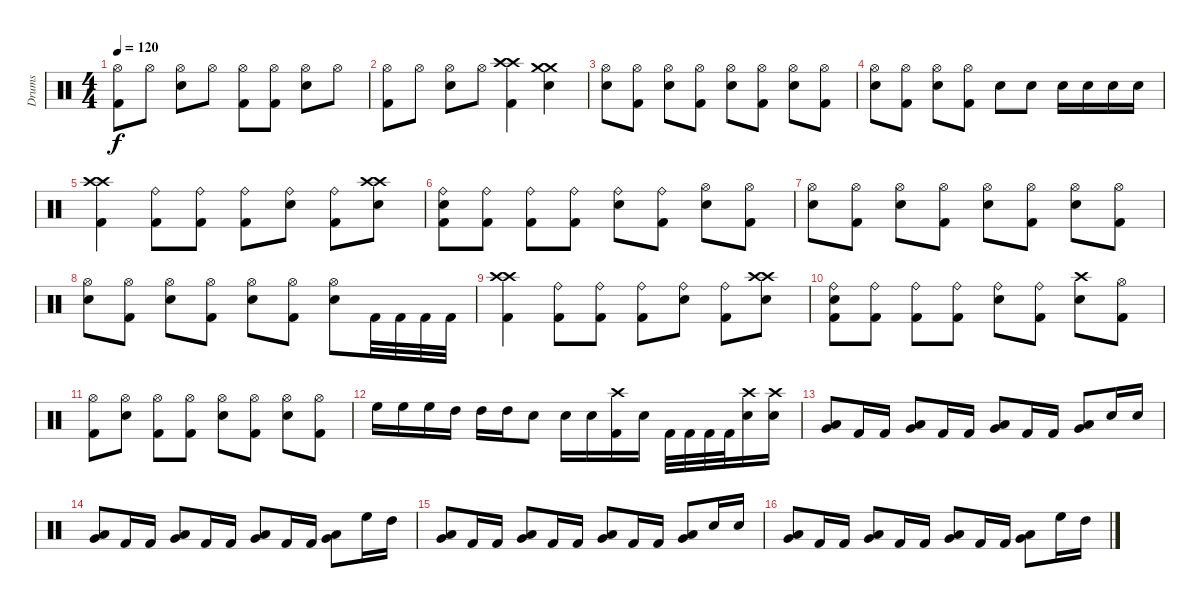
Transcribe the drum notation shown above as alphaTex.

\track ("Drums" "Drums") {instrument percussion}
\staff {score}
\articulation defaults
\ts (4 4)
\tempo 120
\clef neutral
\ks c
("Hi-Hat (open)" "Kick (hit) 2").8{dy f} "Hi-Hat (open)".8 ("Hi-Hat (open)" "Electric Snare (hit)").8 "Hi-Hat (open)".8 ("Hi-Hat (open)" "Kick (hit) 2").8 ("Hi-Hat (open)" "Kick (hit) 2").8 ("Hi-Hat (open)" "Electric Snare (hit)").8 "Hi-Hat (open)".8 |
("Hi-Hat (open)" "Kick (hit) 2").8 "Hi-Hat (open)".8 ("Hi-Hat (open)" "Electric Snare (hit)").8 "Hi-Hat (open)".8 ("Crash high (hit)" "Crash high (hit)" "Kick (hit) 2").4 ("Crash medium (hit)" "Crash medium (hit)" "Electric Snare (hit)").4 |
("Hi-Hat (open)" "Electric Snare (hit)").8 ("Hi-Hat (open)" "Kick (hit) 2").8 ("Hi-Hat (open)" "Electric Snare (hit)").8 ("Hi-Hat (open)" "Kick (hit) 2").8 ("Hi-Hat (open)" "Electric Snare (hit)").8 ("Hi-Hat (open)" "Kick (hit) 2").8 ("Hi-Hat (open)" "Electric Snare (hit)").8 ("Hi-Hat (open)" "Kick (hit) 2").8 |
("Hi-Hat (open)" "Electric Snare (hit)").8 ("Hi-Hat (open)" "Kick (hit) 2").8 ("Hi-Hat (open)" "Electric Snare (hit)").8 ("Hi-Hat (open)" "Kick (hit) 2").8 "Electric Snare (hit)".8 "Electric Snare (hit)".8 "Electric Snare (hit)".16 "Electric Snare (hit)".16 "Electric Snare (hit)".16 "Electric Snare (hit)".16 |
("Crash high (hit)" "Crash high (hit)" "Kick (hit) 2").4 ("Ride (bell)" "Kick (hit) 2").8 ("Ride (bell)" "Kick (hit) 2").8 ("Ride (bell)" "Kick (hit) 2").8 ("Ride (bell)" "Electric Snare (hit)").8 ("Ride (bell)" "Kick (hit) 2").8 ("Crash high (hit)" "Crash high (hit)" "Electric Snare (hit)").8 |
("Ride (bell)" "Electric Snare (hit)" "Kick (hit) 2").8 ("Ride (bell)" "Kick (hit) 2").8 ("Ride (bell)" "Kick (hit) 2").8 ("Ride (bell)" "Kick (hit) 2").8 ("Ride (bell)" "Electric Snare (hit)").8 ("Ride (bell)" "Kick (hit) 2").8 ("Hi-Hat (open)" "Electric Snare (hit)").8 ("Hi-Hat (open)" "Kick (hit) 2").8 |
("Hi-Hat (open)" "Electric Snare (hit)").8 ("Hi-Hat (open)" "Kick (hit) 2").8 ("Hi-Hat (open)" "Electric Snare (hit)").8 ("Hi-Hat (open)" "Kick (hit) 2").8 ("Hi-Hat (open)" "Electric Snare (hit)").8 ("Hi-Hat (open)" "Kick (hit) 2").8 ("Hi-Hat (open)" "Electric Snare (hit)").8 ("Hi-Hat (open)" "Kick (hit) 2").8 |
("Hi-Hat (open)" "Electric Snare (hit)").8 ("Hi-Hat (open)" "Kick (hit) 2").8 ("Hi-Hat (open)" "Electric Snare (hit)").8 ("Hi-Hat (open)" "Kick (hit) 2").8 ("Hi-Hat (open)" "Electric Snare (hit)").8 ("Hi-Hat (open)" "Kick (hit) 2").8 ("Hi-Hat (open)" "Electric Snare (hit)").8 "Kick (hit) 2".32 "Kick (hit) 2".32 "Kick (hit) 2".32 "Kick (hit) 2".32 |
("Crash high (hit)" "Crash high (hit)" "Kick (hit) 2").4 ("Ride (bell)" "Kick (hit) 2").8 ("Ride (bell)" "Kick (hit) 2").8 ("Ride (bell)" "Kick (hit) 2").8 ("Ride (bell)" "Electric Snare (hit)").8 ("Ride (bell)" "Kick (hit) 2").8 ("Crash high (hit)" "Crash high (hit)" "Electric Snare (hit)").8 |
("Ride (bell)" "Electric Snare (hit)" "Kick (hit) 2").8 ("Ride (bell)" "Kick (hit) 2").8 ("Ride (bell)" "Kick (hit) 2").8 ("Ride (bell)" "Kick (hit) 2").8 ("Ride (bell)" "Electric Snare (hit)").8 ("Ride (bell)" "Kick (hit) 2").8 ("Crash high (hit)" "Electric Snare (hit)").8 ("Hi-Hat (open)" "Kick (hit) 2").8 |
("Hi-Hat (open)" "Kick (hit) 2").8 ("Hi-Hat (open)" "Electric Snare (hit)").8 ("Hi-Hat (open)" "Kick (hit) 2").8 ("Hi-Hat (open)" "Kick (hit) 2").8 ("Hi-Hat (open)" "Electric Snare (hit)").8 ("Hi-Hat (open)" "Kick (hit) 2").8 ("Hi-Hat (open)" "Electric Snare (hit)").8 ("Hi-Hat (open)" "Kick (hit) 2").8 |
"High Floor Tom (hit)".16 "High Floor Tom (hit)".16 "High Floor Tom (hit)".16 "High Tom (hit)".16 "High Tom (hit)".16 "High Tom (hit)".16 "Electric Snare (hit)".8 "Electric Snare (hit)".16 "Electric Snare (hit)".16 ("Crash high (hit)" "Kick (hit) 2").16 "Electric Snare (hit)".16 "Kick (hit) 2".32 "Kick (hit) 2".32 "Kick (hit) 2".32 "Kick (hit) 2".32 ("Crash high (hit)" "Electric Snare (hit)").16 ("Crash high (hit)" "Electric Snare (hit)").16 |
("Low Floor Tom (hit)" "Very Low Tom (hit)").8 "Kick (hit) 2".16 "Kick (hit) 2".16 ("Low Floor Tom (hit)" "Very Low Tom (hit)").8 "Kick (hit) 2".16 "Kick (hit) 2".16 ("Low Floor Tom (hit)" "Very Low Tom (hit)").8 "Kick (hit) 2".16 "Kick (hit) 2".16 ("Low Floor Tom (hit)" "Very Low Tom (hit)").8 "Electric Snare (hit)".16 "Electric Snare (hit)".16 |
("Low Floor Tom (hit)" "Very Low Tom (hit)").8 "Kick (hit) 2".16 "Kick (hit) 2".16 ("Low Floor Tom (hit)" "Very Low Tom (hit)").8 "Kick (hit) 2".16 "Kick (hit) 2".16 ("Low Floor Tom (hit)" "Very Low Tom (hit)").8 "Kick (hit) 2".16 "Kick (hit) 2".16 ("Low Floor Tom (hit)" "Very Low Tom (hit)").8 "High Floor Tom (hit)".16 "High Tom (hit)".16 |
("Low Floor Tom (hit)" "Very Low Tom (hit)").8 "Kick (hit) 2".16 "Kick (hit) 2".16 ("Low Floor Tom (hit)" "Very Low Tom (hit)").8 "Kick (hit) 2".16 "Kick (hit) 2".16 ("Low Floor Tom (hit)" "Very Low Tom (hit)").8 "Kick (hit) 2".16 "Kick (hit) 2".16 ("Low Floor Tom (hit)" "Very Low Tom (hit)").8 "Electric Snare (hit)".16 "Electric Snare (hit)".16 |
("Low Floor Tom (hit)" "Very Low Tom (hit)").8 "Kick (hit) 2".16 "Kick (hit) 2".16 ("Low Floor Tom (hit)" "Very Low Tom (hit)").8 "Kick (hit) 2".16 "Kick (hit) 2".16 ("Low Floor Tom (hit)" "Very Low Tom (hit)").8 "Kick (hit) 2".16 "Kick (hit) 2".16 ("Low Floor Tom (hit)" "Very Low Tom (hit)").8 "High Floor Tom (hit)".16 "High Tom (hit)".16
